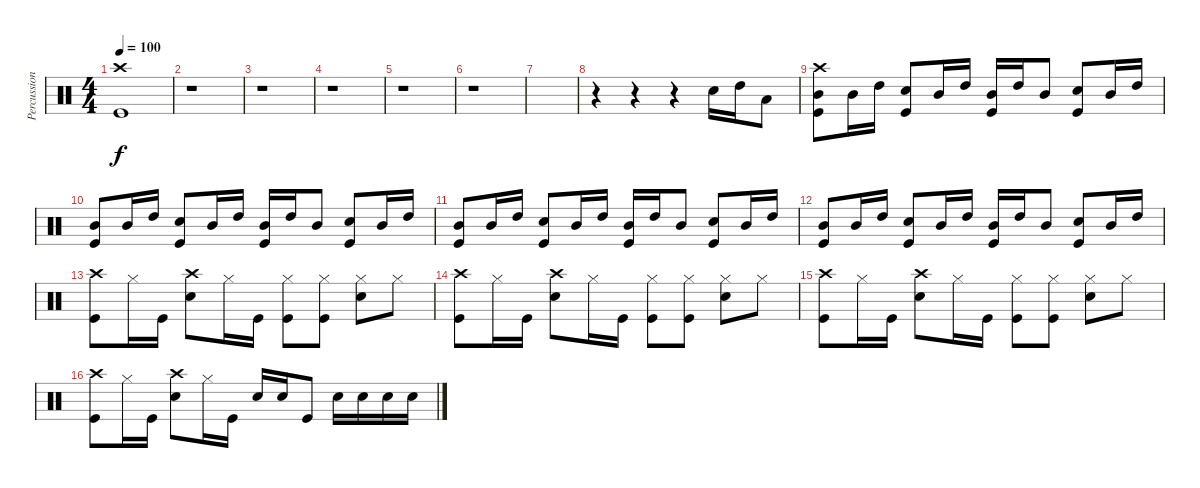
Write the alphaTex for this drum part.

\track ("Percussions" "Percussion") {instrument percussion}
\staff {score}
\articulation defaults
\ts (4 4)
\tempo 100
\clef neutral
\ks c
("Crash high (hit)" "Kick (hit)").1{dy f} |
r.1 |
r.1 |
r.1 |
r.1 |
r.1 |
|
r.4 r.4 r.4 "Snare (hit) 2".16 "High Tom (hit)".16 "Low Tom (hit)".8 |
("Kick (hit)" "Mid Tom (hit)" "Crash high (hit)").8 "Mid Tom (hit)".16 "High Tom (hit)".16 ("Snare (hit) 2" "Kick (hit)").8 "Mid Tom (hit)".16 "High Tom (hit)".16 ("Kick (hit)" "Mid Tom (hit)").16 "High Tom (hit)".16 "Mid Tom (hit)".8 ("Snare (hit) 2" "Kick (hit)").8 "Mid Tom (hit)".16 "High Tom (hit)".16 |
("Kick (hit)" "Mid Tom (hit)").8 "Mid Tom (hit)".16 "High Tom (hit)".16 ("Snare (hit) 2" "Kick (hit)").8 "Mid Tom (hit)".16 "High Tom (hit)".16 ("Kick (hit)" "Mid Tom (hit)").16 "High Tom (hit)".16 "Mid Tom (hit)".8 ("Snare (hit) 2" "Kick (hit)").8 "Mid Tom (hit)".16 "High Tom (hit)".16 |
("Kick (hit)" "Mid Tom (hit)").8 "Mid Tom (hit)".16 "High Tom (hit)".16 ("Snare (hit) 2" "Kick (hit)").8 "Mid Tom (hit)".16 "High Tom (hit)".16 ("Kick (hit)" "Mid Tom (hit)").16 "High Tom (hit)".16 "Mid Tom (hit)".8 ("Snare (hit) 2" "Kick (hit)").8 "Mid Tom (hit)".16 "High Tom (hit)".16 |
("Kick (hit)" "Mid Tom (hit)").8 "Mid Tom (hit)".16 "High Tom (hit)".16 ("Snare (hit) 2" "Kick (hit)").8 "Mid Tom (hit)".16 "High Tom (hit)".16 ("Kick (hit)" "Mid Tom (hit)").16 "High Tom (hit)".16 "Mid Tom (hit)".8 ("Snare (hit) 2" "Kick (hit)").8 "Mid Tom (hit)".16 "High Tom (hit)".16 |
("Crash high (hit)" "Kick (hit)").8 "Hi-Hat (closed)".16 "Kick (hit)".16 ("Crash high (hit)" "Snare (hit) 2").8 "Hi-Hat (closed)".16 "Kick (hit)".16 ("Kick (hit)" "Hi-Hat (closed)").8 ("Kick (hit)" "Hi-Hat (closed)").8 ("Snare (hit) 2" "Hi-Hat (closed)").8 "Hi-Hat (closed)".8 |
("Crash high (hit)" "Kick (hit)").8 "Hi-Hat (closed)".16 "Kick (hit)".16 ("Crash high (hit)" "Snare (hit) 2").8 "Hi-Hat (closed)".16 "Kick (hit)".16 ("Kick (hit)" "Hi-Hat (closed)").8 ("Kick (hit)" "Hi-Hat (closed)").8 ("Snare (hit) 2" "Hi-Hat (closed)").8 "Hi-Hat (closed)".8 |
("Crash high (hit)" "Kick (hit)").8 "Hi-Hat (closed)".16 "Kick (hit)".16 ("Crash high (hit)" "Snare (hit) 2").8 "Hi-Hat (closed)".16 "Kick (hit)".16 ("Kick (hit)" "Hi-Hat (closed)").8 ("Kick (hit)" "Hi-Hat (closed)").8 ("Snare (hit) 2" "Hi-Hat (closed)").8 "Hi-Hat (closed)".8 |
("Crash high (hit)" "Kick (hit)").8 "Hi-Hat (closed)".16 "Kick (hit)".16 ("Crash high (hit)" "Snare (hit) 2").8 "Hi-Hat (closed)".16 "Kick (hit)".16 "Snare (hit) 2".16 "Snare (hit) 2".16 "Kick (hit)".8 "Snare (hit) 2".16 "Snare (hit) 2".16 "Snare (hit) 2".16 "Snare (hit) 2".16
